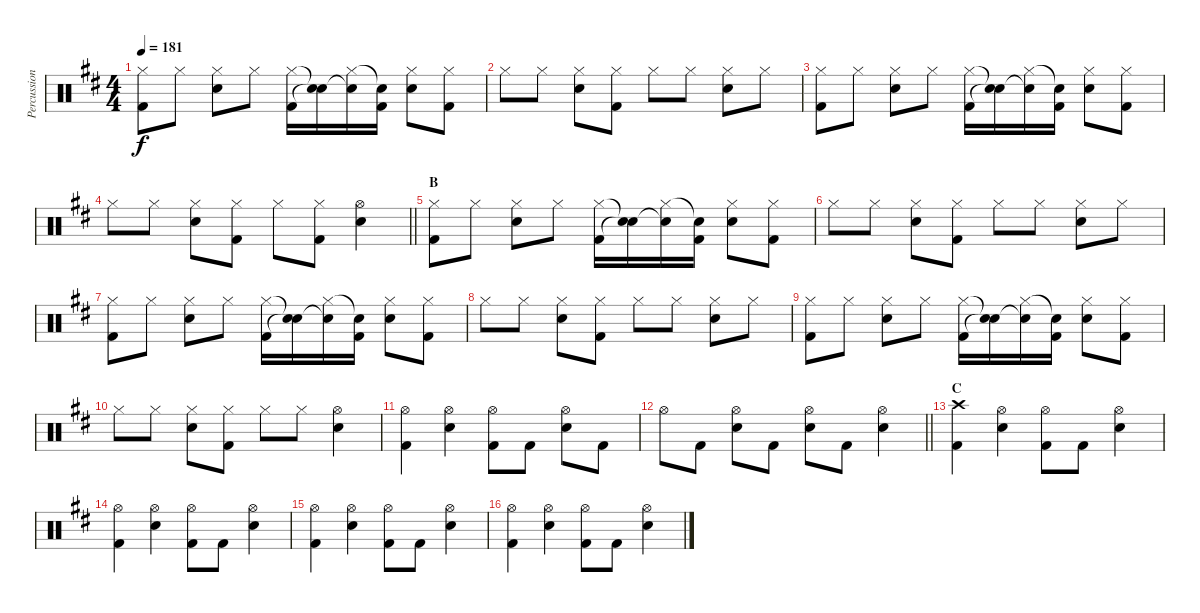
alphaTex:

\track ("Percussion" "Percussion") {instrument percussion}
\staff {score}
\articulation defaults
\ts (4 4)
\tempo 181
\clef neutral
\ks d
("Hi-Hat (closed)" "Kick (hit) 2").8{dy f} "Hi-Hat (closed)".8 ("Hi-Hat (closed)" "Snare (hit) 2").8 "Hi-Hat (closed)".8 ("Hi-Hat (closed)" "Kick (hit) 2").16 ("Snare (hit)"{t} "Snare (hit)"{t}).16 ("Hi-Hat (closed)" "Snare (hit)"{t}).16 ("Snare (hit)"{t} "Kick (hit) 2").16 ("Hi-Hat (closed)" "Snare (hit) 2").8 ("Hi-Hat (closed)" "Kick (hit) 2").8 |
"Hi-Hat (closed)".8 "Hi-Hat (closed)".8 ("Hi-Hat (closed)" "Snare (hit) 2").8 ("Hi-Hat (closed)" "Kick (hit) 2").8 "Hi-Hat (closed)".8 "Hi-Hat (closed)".8 ("Hi-Hat (closed)" "Snare (hit) 2").8 "Hi-Hat (closed)".8 |
("Hi-Hat (closed)" "Kick (hit) 2").8 "Hi-Hat (closed)".8 ("Hi-Hat (closed)" "Snare (hit) 2").8 "Hi-Hat (closed)".8 ("Hi-Hat (closed)" "Kick (hit) 2").16 ("Snare (hit)"{t} "Snare (hit)"{t}).16 ("Hi-Hat (closed)" "Snare (hit)"{t}).16 ("Snare (hit)"{t} "Kick (hit) 2").16 ("Hi-Hat (closed)" "Snare (hit) 2").8 ("Hi-Hat (closed)" "Kick (hit) 2").8 |
\barLineRight lightlight "Hi-Hat (closed)".8 "Hi-Hat (closed)".8
("Hi-Hat (closed)" "Snare (hit) 2").8 ("Hi-Hat (closed)" "Kick (hit) 2").8 "Hi-Hat (closed)".8 ("Hi-Hat (closed)" "Kick (hit) 2").8 ("Hi-Hat (open)" "Snare (hit) 2").4 |
\section ("" "B")
("Hi-Hat (closed)" "Kick (hit) 2").8 "Hi-Hat (closed)".8 ("Hi-Hat (closed)" "Snare (hit) 2").8 "Hi-Hat (closed)".8 ("Hi-Hat (closed)" "Kick (hit) 2").16 ("Snare (hit)"{t} "Snare (hit)"{t}).16 ("Hi-Hat (closed)" "Snare (hit)"{t}).16 ("Snare (hit)"{t} "Kick (hit) 2").16 ("Hi-Hat (closed)" "Snare (hit) 2").8 ("Hi-Hat (closed)" "Kick (hit) 2").8 |
"Hi-Hat (closed)".8 "Hi-Hat (closed)".8 ("Hi-Hat (closed)" "Snare (hit) 2").8 ("Hi-Hat (closed)" "Kick (hit) 2").8 "Hi-Hat (closed)".8 "Hi-Hat (closed)".8 ("Hi-Hat (closed)" "Snare (hit) 2").8 "Hi-Hat (closed)".8 |
("Hi-Hat (closed)" "Kick (hit) 2").8 "Hi-Hat (closed)".8 ("Hi-Hat (closed)" "Snare (hit) 2").8 "Hi-Hat (closed)".8 ("Hi-Hat (closed)" "Kick (hit) 2").16 ("Snare (hit)"{t} "Snare (hit)"{t}).16 ("Hi-Hat (closed)" "Snare (hit)"{t}).16 ("Snare (hit)"{t} "Kick (hit) 2").16 ("Hi-Hat (closed)" "Snare (hit) 2").8 ("Hi-Hat (closed)" "Kick (hit) 2").8 |
"Hi-Hat (closed)".8 "Hi-Hat (closed)".8 ("Hi-Hat (closed)" "Snare (hit) 2").8 ("Hi-Hat (closed)" "Kick (hit) 2").8 "Hi-Hat (closed)".8 "Hi-Hat (closed)".8 ("Hi-Hat (closed)" "Snare (hit) 2").8 "Hi-Hat (closed)".8 |
("Hi-Hat (closed)" "Kick (hit) 2").8 "Hi-Hat (closed)".8 ("Hi-Hat (closed)" "Snare (hit) 2").8 "Hi-Hat (closed)".8 ("Hi-Hat (closed)" "Kick (hit) 2").16 ("Snare (hit)"{t} "Snare (hit)"{t}).16 ("Hi-Hat (closed)" "Snare (hit)"{t}).16 ("Snare (hit)"{t} "Kick (hit) 2").16 ("Hi-Hat (closed)" "Snare (hit) 2").8 ("Hi-Hat (closed)" "Kick (hit) 2").8 |
"Hi-Hat (closed)".8 "Hi-Hat (closed)".8 ("Hi-Hat (closed)" "Snare (hit) 2").8 ("Hi-Hat (closed)" "Kick (hit) 2").8 "Hi-Hat (closed)".8 "Hi-Hat (closed)".8 ("Hi-Hat (open)" "Snare (hit) 2").4 |
("Hi-Hat (open)" "Kick (hit) 2").4 ("Hi-Hat (open)" "Snare (hit) 2").4 ("Hi-Hat (open)" "Kick (hit) 2").8 "Kick (hit) 2".8 ("Hi-Hat (open)" "Snare (hit) 2").8 "Kick (hit) 2".8 |
\barLineRight lightlight "Hi-Hat (open)".8 "Kick (hit) 2".8
("Hi-Hat (open)" "Snare (hit) 2").8 "Kick (hit) 2".8 ("Hi-Hat (open)" "Snare (hit) 2").8 "Kick (hit) 2".8 ("Hi-Hat (open)" "Snare (hit) 2").4 |
\section ("" "C")
("Crash high (hit)" "Kick (hit) 2").4 ("Hi-Hat (open)" "Snare (hit) 2").4 ("Hi-Hat (open)" "Kick (hit) 2").8 "Kick (hit) 2".8 ("Hi-Hat (open)" "Snare (hit) 2").4 |
("Hi-Hat (open)" "Kick (hit) 2").4 ("Hi-Hat (open)" "Snare (hit) 2").4 ("Hi-Hat (open)" "Kick (hit) 2").8 "Kick (hit) 2".8 ("Hi-Hat (open)" "Snare (hit) 2").4 |
("Hi-Hat (open)" "Kick (hit) 2").4 ("Hi-Hat (open)" "Snare (hit) 2").4 ("Hi-Hat (open)" "Kick (hit) 2").8 "Kick (hit) 2".8 ("Hi-Hat (open)" "Snare (hit) 2").4 |
("Hi-Hat (open)" "Kick (hit) 2").4 ("Hi-Hat (open)" "Snare (hit) 2").4 ("Hi-Hat (open)" "Kick (hit) 2").8 "Kick (hit) 2".8 ("Hi-Hat (open)" "Snare (hit) 2").4
